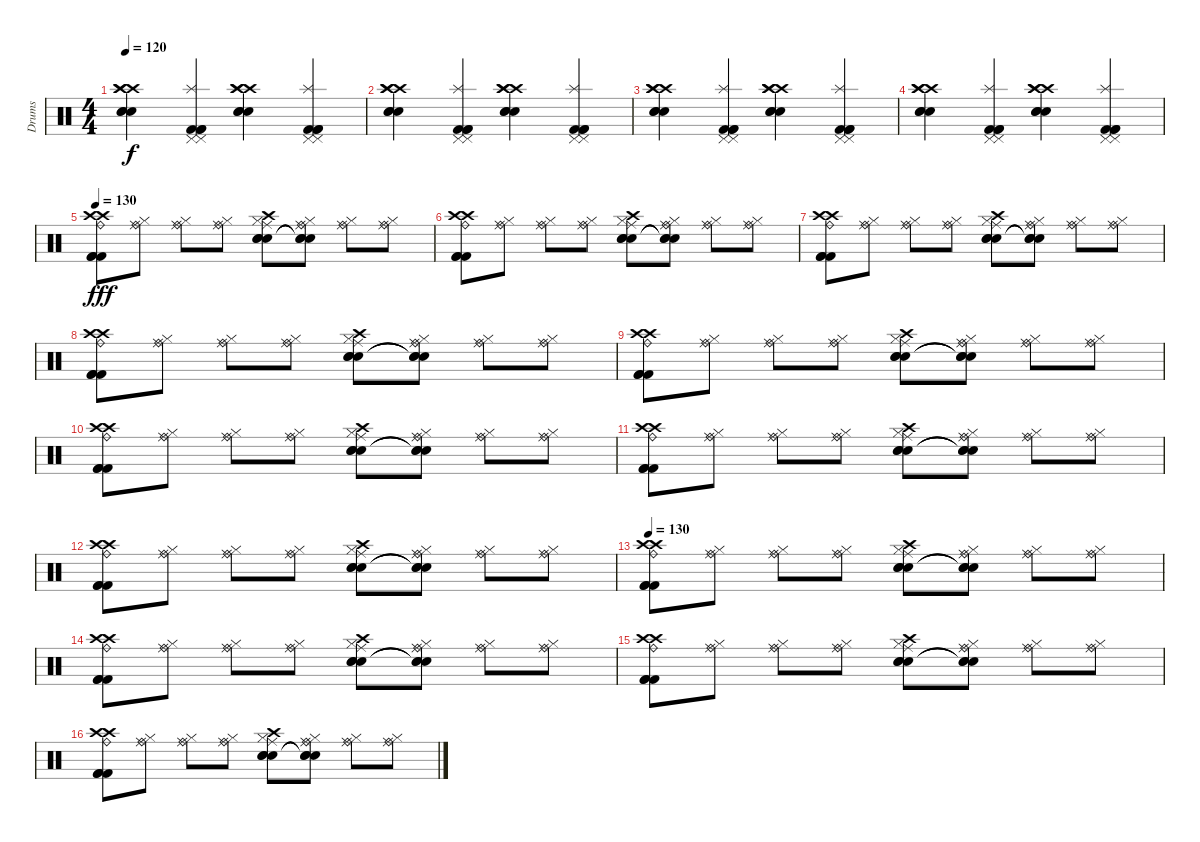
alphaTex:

\track ("Drums" "Drums") {instrument percussion}
\staff {score}
\articulation defaults
\ts (4 4)
\tempo 120
\clef neutral
\ks c
("Crash high (hit)" "Crash high (hit)" "Crash high (hit)" "Snare (hit) 2" "Snare (hit) 2" "Snare (hit) 2").4{dy f} ("Pedal Hi-Hat (hit)" "Pedal Hi-Hat (hit)" "Splash (hit)" "Kick (hit) 2" "Kick (hit) 2" "Kick (hit) 2").4 ("Crash high (hit)" "Crash high (hit)" "Crash high (hit)" "Snare (hit) 2" "Snare (hit) 2" "Snare (hit) 2").4 ("Pedal Hi-Hat (hit)" "Pedal Hi-Hat (hit)" "Splash (hit)" "Kick (hit) 2" "Kick (hit) 2" "Kick (hit) 2").4 |
("Crash high (hit)" "Crash high (hit)" "Crash high (hit)" "Snare (hit) 2" "Snare (hit) 2" "Snare (hit) 2").4 ("Pedal Hi-Hat (hit)" "Pedal Hi-Hat (hit)" "Splash (hit)" "Kick (hit) 2" "Kick (hit) 2" "Kick (hit) 2").4 ("Crash high (hit)" "Crash high (hit)" "Crash high (hit)" "Snare (hit) 2" "Snare (hit) 2" "Snare (hit) 2").4 ("Pedal Hi-Hat (hit)" "Pedal Hi-Hat (hit)" "Splash (hit)" "Kick (hit) 2" "Kick (hit) 2" "Kick (hit) 2").4 |
("Crash high (hit)" "Crash high (hit)" "Crash high (hit)" "Snare (hit) 2" "Snare (hit) 2" "Snare (hit) 2").4 ("Pedal Hi-Hat (hit)" "Pedal Hi-Hat (hit)" "Splash (hit)" "Kick (hit) 2" "Kick (hit) 2" "Kick (hit) 2").4 ("Crash high (hit)" "Crash high (hit)" "Crash high (hit)" "Snare (hit) 2" "Snare (hit) 2" "Snare (hit) 2").4 ("Pedal Hi-Hat (hit)" "Pedal Hi-Hat (hit)" "Splash (hit)" "Kick (hit) 2" "Kick (hit) 2" "Kick (hit) 2").4 |
("Crash high (hit)" "Crash high (hit)" "Crash high (hit)" "Snare (hit) 2" "Snare (hit) 2" "Snare (hit) 2").4 ("Pedal Hi-Hat (hit)" "Pedal Hi-Hat (hit)" "Splash (hit)" "Kick (hit) 2" "Kick (hit) 2" "Kick (hit) 2").4 ("Crash high (hit)" "Crash high (hit)" "Crash high (hit)" "Snare (hit) 2" "Snare (hit) 2" "Snare (hit) 2").4 ("Pedal Hi-Hat (hit)" "Pedal Hi-Hat (hit)" "Splash (hit)" "Kick (hit) 2" "Kick (hit) 2" "Kick (hit) 2").4 |
\tempo 130
("Ride (bell)" "Crash high (hit)" "Crash high (hit)" "Kick (hit) 2" "Kick (hit) 2" "Kick (hit) 2").8{dy fff} ("Ride (bell)" "Ride (middle)" "Hi-Hat (closed)").8 ("Ride (bell)" "Ride (middle)" "Hi-Hat (closed)").8 ("Ride (bell)" "Ride (middle)" "Hi-Hat (closed)").8 ("Crash high (hit)" "Ride (middle)" "Hi-Hat (closed)" "Snare (hit) 2" "Snare (hit) 2" "Snare (hit) 2").8 ("Ride (bell)" "Ride (middle)" "Hi-Hat (closed)" "Snare (hit)"{t} "Snare (hit)"{t} "Snare (hit)"{t}).8 ("Ride (bell)" "Ride (middle)" "Hi-Hat (closed)").8 ("Ride (bell)" "Ride (middle)" "Hi-Hat (closed)").8 |
("Ride (bell)" "Crash high (hit)" "Crash high (hit)" "Kick (hit) 2" "Kick (hit) 2" "Kick (hit) 2").8 ("Ride (bell)" "Ride (middle)" "Hi-Hat (closed)").8 ("Ride (bell)" "Ride (middle)" "Hi-Hat (closed)").8 ("Ride (bell)" "Ride (middle)" "Hi-Hat (closed)").8 ("Crash high (hit)" "Ride (middle)" "Hi-Hat (closed)" "Snare (hit) 2" "Snare (hit) 2" "Snare (hit) 2").8 ("Ride (bell)" "Ride (middle)" "Hi-Hat (closed)" "Snare (hit)"{t} "Snare (hit)"{t} "Snare (hit)"{t}).8 ("Ride (bell)" "Ride (middle)" "Hi-Hat (closed)").8 ("Ride (bell)" "Ride (middle)" "Hi-Hat (closed)").8 |
("Ride (bell)" "Crash high (hit)" "Crash high (hit)" "Kick (hit) 2" "Kick (hit) 2" "Kick (hit) 2").8 ("Ride (bell)" "Ride (middle)" "Hi-Hat (closed)").8 ("Ride (bell)" "Ride (middle)" "Hi-Hat (closed)").8 ("Ride (bell)" "Ride (middle)" "Hi-Hat (closed)").8 ("Crash high (hit)" "Ride (middle)" "Hi-Hat (closed)" "Snare (hit) 2" "Snare (hit) 2" "Snare (hit) 2").8 ("Ride (bell)" "Ride (middle)" "Hi-Hat (closed)" "Snare (hit)"{t} "Snare (hit)"{t} "Snare (hit)"{t}).8 ("Ride (bell)" "Ride (middle)" "Hi-Hat (closed)").8 ("Ride (bell)" "Ride (middle)" "Hi-Hat (closed)").8 |
("Ride (bell)" "Crash high (hit)" "Crash high (hit)" "Kick (hit) 2" "Kick (hit) 2" "Kick (hit) 2").8 ("Ride (bell)" "Ride (middle)" "Hi-Hat (closed)").8 ("Ride (bell)" "Ride (middle)" "Hi-Hat (closed)").8 ("Ride (bell)" "Ride (middle)" "Hi-Hat (closed)").8 ("Crash high (hit)" "Ride (middle)" "Hi-Hat (closed)" "Snare (hit) 2" "Snare (hit) 2" "Snare (hit) 2").8 ("Ride (bell)" "Ride (middle)" "Hi-Hat (closed)" "Snare (hit)"{t} "Snare (hit)"{t} "Snare (hit)"{t}).8 ("Ride (bell)" "Ride (middle)" "Hi-Hat (closed)").8 ("Ride (bell)" "Ride (middle)" "Hi-Hat (closed)").8 |
("Ride (bell)" "Crash high (hit)" "Crash high (hit)" "Kick (hit) 2" "Kick (hit) 2" "Kick (hit) 2").8 ("Ride (bell)" "Ride (middle)" "Hi-Hat (closed)").8 ("Ride (bell)" "Ride (middle)" "Hi-Hat (closed)").8 ("Ride (bell)" "Ride (middle)" "Hi-Hat (closed)").8 ("Crash high (hit)" "Ride (middle)" "Hi-Hat (closed)" "Snare (hit) 2" "Snare (hit) 2" "Snare (hit) 2").8 ("Ride (bell)" "Ride (middle)" "Hi-Hat (closed)" "Snare (hit)"{t} "Snare (hit)"{t} "Snare (hit)"{t}).8 ("Ride (bell)" "Ride (middle)" "Hi-Hat (closed)").8 ("Ride (bell)" "Ride (middle)" "Hi-Hat (closed)").8 |
("Ride (bell)" "Crash high (hit)" "Crash high (hit)" "Kick (hit) 2" "Kick (hit) 2" "Kick (hit) 2").8 ("Ride (bell)" "Ride (middle)" "Hi-Hat (closed)").8 ("Ride (bell)" "Ride (middle)" "Hi-Hat (closed)").8 ("Ride (bell)" "Ride (middle)" "Hi-Hat (closed)").8 ("Crash high (hit)" "Ride (middle)" "Hi-Hat (closed)" "Snare (hit) 2" "Snare (hit) 2" "Snare (hit) 2").8 ("Ride (bell)" "Ride (middle)" "Hi-Hat (closed)" "Snare (hit)"{t} "Snare (hit)"{t} "Snare (hit)"{t}).8 ("Ride (bell)" "Ride (middle)" "Hi-Hat (closed)").8 ("Ride (bell)" "Ride (middle)" "Hi-Hat (closed)").8 |
("Ride (bell)" "Crash high (hit)" "Crash high (hit)" "Kick (hit) 2" "Kick (hit) 2" "Kick (hit) 2").8 ("Ride (bell)" "Ride (middle)" "Hi-Hat (closed)").8 ("Ride (bell)" "Ride (middle)" "Hi-Hat (closed)").8 ("Ride (bell)" "Ride (middle)" "Hi-Hat (closed)").8 ("Crash high (hit)" "Ride (middle)" "Hi-Hat (closed)" "Snare (hit) 2" "Snare (hit) 2" "Snare (hit) 2").8 ("Ride (bell)" "Ride (middle)" "Hi-Hat (closed)" "Snare (hit)"{t} "Snare (hit)"{t} "Snare (hit)"{t}).8 ("Ride (bell)" "Ride (middle)" "Hi-Hat (closed)").8 ("Ride (bell)" "Ride (middle)" "Hi-Hat (closed)").8 |
("Ride (bell)" "Crash high (hit)" "Crash high (hit)" "Kick (hit) 2" "Kick (hit) 2" "Kick (hit) 2").8 ("Ride (bell)" "Ride (middle)" "Hi-Hat (closed)").8 ("Ride (bell)" "Ride (middle)" "Hi-Hat (closed)").8 ("Ride (bell)" "Ride (middle)" "Hi-Hat (closed)").8 ("Crash high (hit)" "Ride (middle)" "Hi-Hat (closed)" "Snare (hit) 2" "Snare (hit) 2" "Snare (hit) 2").8 ("Ride (bell)" "Ride (middle)" "Hi-Hat (closed)" "Snare (hit)"{t} "Snare (hit)"{t} "Snare (hit)"{t}).8 ("Ride (bell)" "Ride (middle)" "Hi-Hat (closed)").8 ("Ride (bell)" "Ride (middle)" "Hi-Hat (closed)").8 |
\tempo 130
("Ride (bell)" "Crash high (hit)" "Crash high (hit)" "Kick (hit) 2" "Kick (hit) 2" "Kick (hit) 2").8 ("Ride (bell)" "Ride (middle)" "Hi-Hat (closed)").8 ("Ride (bell)" "Ride (middle)" "Hi-Hat (closed)").8 ("Ride (bell)" "Ride (middle)" "Hi-Hat (closed)").8 ("Crash high (hit)" "Ride (middle)" "Hi-Hat (closed)" "Snare (hit) 2" "Snare (hit) 2" "Snare (hit) 2").8 ("Ride (bell)" "Ride (middle)" "Hi-Hat (closed)" "Snare (hit)"{t} "Snare (hit)"{t} "Snare (hit)"{t}).8 ("Ride (bell)" "Ride (middle)" "Hi-Hat (closed)").8 ("Ride (bell)" "Ride (middle)" "Hi-Hat (closed)").8 |
("Ride (bell)" "Crash high (hit)" "Crash high (hit)" "Kick (hit) 2" "Kick (hit) 2" "Kick (hit) 2").8 ("Ride (bell)" "Ride (middle)" "Hi-Hat (closed)").8 ("Ride (bell)" "Ride (middle)" "Hi-Hat (closed)").8 ("Ride (bell)" "Ride (middle)" "Hi-Hat (closed)").8 ("Crash high (hit)" "Ride (middle)" "Hi-Hat (closed)" "Snare (hit) 2" "Snare (hit) 2" "Snare (hit) 2").8 ("Ride (bell)" "Ride (middle)" "Hi-Hat (closed)" "Snare (hit)"{t} "Snare (hit)"{t} "Snare (hit)"{t}).8 ("Ride (bell)" "Ride (middle)" "Hi-Hat (closed)").8 ("Ride (bell)" "Ride (middle)" "Hi-Hat (closed)").8 |
("Ride (bell)" "Crash high (hit)" "Crash high (hit)" "Kick (hit) 2" "Kick (hit) 2" "Kick (hit) 2").8 ("Ride (bell)" "Ride (middle)" "Hi-Hat (closed)").8 ("Ride (bell)" "Ride (middle)" "Hi-Hat (closed)").8 ("Ride (bell)" "Ride (middle)" "Hi-Hat (closed)").8 ("Crash high (hit)" "Ride (middle)" "Hi-Hat (closed)" "Snare (hit) 2" "Snare (hit) 2" "Snare (hit) 2").8 ("Ride (bell)" "Ride (middle)" "Hi-Hat (closed)" "Snare (hit)"{t} "Snare (hit)"{t} "Snare (hit)"{t}).8 ("Ride (bell)" "Ride (middle)" "Hi-Hat (closed)").8 ("Ride (bell)" "Ride (middle)" "Hi-Hat (closed)").8 |
("Ride (bell)" "Crash high (hit)" "Crash high (hit)" "Kick (hit) 2" "Kick (hit) 2" "Kick (hit) 2").8 ("Ride (bell)" "Ride (middle)" "Hi-Hat (closed)").8 ("Ride (bell)" "Ride (middle)" "Hi-Hat (closed)").8 ("Ride (bell)" "Ride (middle)" "Hi-Hat (closed)").8 ("Crash high (hit)" "Ride (middle)" "Hi-Hat (closed)" "Snare (hit) 2" "Snare (hit) 2" "Snare (hit) 2").8 ("Ride (bell)" "Ride (middle)" "Hi-Hat (closed)" "Snare (hit)"{t} "Snare (hit)"{t} "Snare (hit)"{t}).8 ("Ride (bell)" "Ride (middle)" "Hi-Hat (closed)").8 ("Ride (bell)" "Ride (middle)" "Hi-Hat (closed)").8
